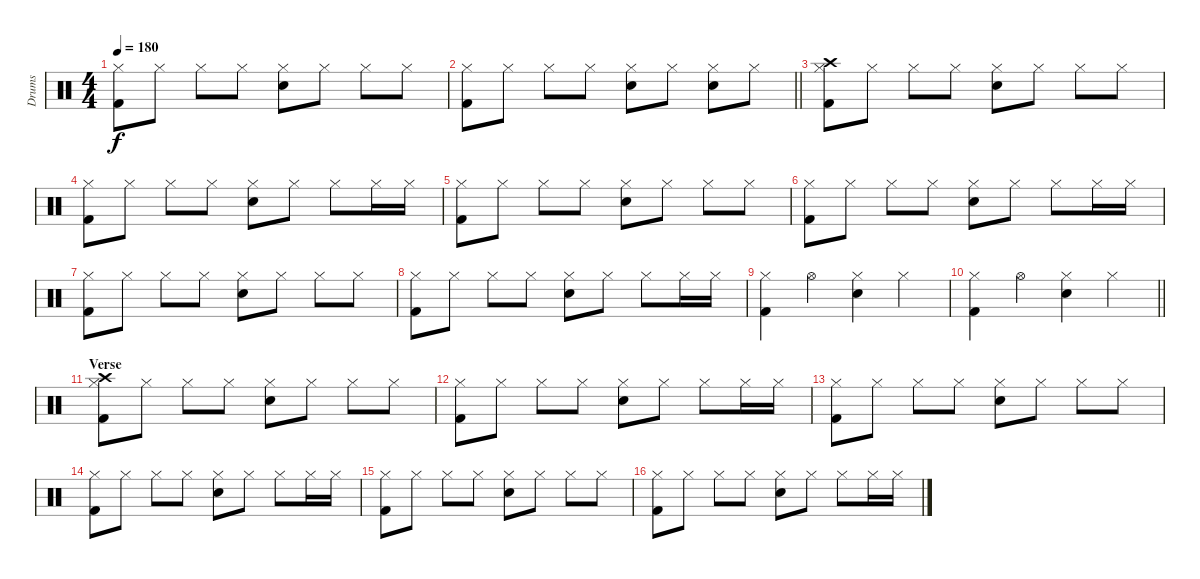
\track ("Drums" "Drums") {instrument percussion}
\staff
\articulation defaults
\ts (4 4)
\tempo 180
\clef neutral
\ks c
("Hi-Hat (closed)" "Kick (hit) 2").8{dy f} "Hi-Hat (closed)".8 "Hi-Hat (closed)".8 "Hi-Hat (closed)".8 ("Hi-Hat (closed)" "Electric Snare (hit)").8 "Hi-Hat (closed)".8 "Hi-Hat (closed)".8 "Hi-Hat (closed)".8 |
\barLineRight lightlight
("Hi-Hat (closed)" "Kick (hit) 2").8 "Hi-Hat (closed)".8 "Hi-Hat (closed)".8 "Hi-Hat (closed)".8 ("Hi-Hat (closed)" "Electric Snare (hit)").8 "Hi-Hat (closed)".8 ("Hi-Hat (closed)" "Electric Snare (hit)").8 "Hi-Hat (closed)".8 |
("Crash high (hit)" "Hi-Hat (closed)" "Kick (hit) 2").8 "Hi-Hat (closed)".8 "Hi-Hat (closed)".8 "Hi-Hat (closed)".8 ("Hi-Hat (closed)" "Electric Snare (hit)").8 "Hi-Hat (closed)".8 "Hi-Hat (closed)".8 "Hi-Hat (closed)".8 |
("Hi-Hat (closed)" "Kick (hit) 2").8 "Hi-Hat (closed)".8 "Hi-Hat (closed)".8 "Hi-Hat (closed)".8 ("Hi-Hat (closed)" "Electric Snare (hit)").8 "Hi-Hat (closed)".8 "Hi-Hat (closed)".8 "Hi-Hat (closed)".16 "Hi-Hat (closed)".16 |
("Hi-Hat (closed)" "Kick (hit) 2").8 "Hi-Hat (closed)".8 "Hi-Hat (closed)".8 "Hi-Hat (closed)".8 ("Hi-Hat (closed)" "Electric Snare (hit)").8 "Hi-Hat (closed)".8 "Hi-Hat (closed)".8 "Hi-Hat (closed)".8 |
("Hi-Hat (closed)" "Kick (hit) 2").8 "Hi-Hat (closed)".8 "Hi-Hat (closed)".8 "Hi-Hat (closed)".8 ("Hi-Hat (closed)" "Electric Snare (hit)").8 "Hi-Hat (closed)".8 "Hi-Hat (closed)".8 "Hi-Hat (closed)".16 "Hi-Hat (closed)".16 |
("Hi-Hat (closed)" "Kick (hit) 2").8 "Hi-Hat (closed)".8 "Hi-Hat (closed)".8 "Hi-Hat (closed)".8 ("Hi-Hat (closed)" "Electric Snare (hit)").8 "Hi-Hat (closed)".8 "Hi-Hat (closed)".8 "Hi-Hat (closed)".8 |
("Hi-Hat (closed)" "Kick (hit) 2").8 "Hi-Hat (closed)".8 "Hi-Hat (closed)".8 "Hi-Hat (closed)".8 ("Hi-Hat (closed)" "Electric Snare (hit)").8 "Hi-Hat (closed)".8 "Hi-Hat (closed)".8 "Hi-Hat (closed)".16 "Hi-Hat (closed)".16 |
("Hi-Hat (closed)" "Kick (hit) 2").4 "Hi-Hat (open)".4 ("Hi-Hat (closed)" "Electric Snare (hit)").4 "Hi-Hat (closed)".4 |
\barLineRight lightlight
("Hi-Hat (closed)" "Kick (hit) 2").4 "Hi-Hat (open)".4 ("Hi-Hat (closed)" "Electric Snare (hit)").4 "Hi-Hat (closed)".4 |
\section ("" "Verse")
("Crash high (hit)" "Hi-Hat (closed)" "Kick (hit) 2").8 "Hi-Hat (closed)".8 "Hi-Hat (closed)".8 "Hi-Hat (closed)".8 ("Hi-Hat (closed)" "Electric Snare (hit)").8 "Hi-Hat (closed)".8 "Hi-Hat (closed)".8 "Hi-Hat (closed)".8 |
("Hi-Hat (closed)" "Kick (hit) 2").8 "Hi-Hat (closed)".8 "Hi-Hat (closed)".8 "Hi-Hat (closed)".8 ("Hi-Hat (closed)" "Electric Snare (hit)").8 "Hi-Hat (closed)".8 "Hi-Hat (closed)".8 "Hi-Hat (closed)".16 "Hi-Hat (closed)".16 |
("Hi-Hat (closed)" "Kick (hit) 2").8 "Hi-Hat (closed)".8 "Hi-Hat (closed)".8 "Hi-Hat (closed)".8 ("Hi-Hat (closed)" "Electric Snare (hit)").8 "Hi-Hat (closed)".8 "Hi-Hat (closed)".8 "Hi-Hat (closed)".8 |
("Hi-Hat (closed)" "Kick (hit) 2").8 "Hi-Hat (closed)".8 "Hi-Hat (closed)".8 "Hi-Hat (closed)".8 ("Hi-Hat (closed)" "Electric Snare (hit)").8 "Hi-Hat (closed)".8 "Hi-Hat (closed)".8 "Hi-Hat (closed)".16 "Hi-Hat (closed)".16 |
("Hi-Hat (closed)" "Kick (hit) 2").8 "Hi-Hat (closed)".8 "Hi-Hat (closed)".8 "Hi-Hat (closed)".8 ("Hi-Hat (closed)" "Electric Snare (hit)").8 "Hi-Hat (closed)".8 "Hi-Hat (closed)".8 "Hi-Hat (closed)".8 |
("Hi-Hat (closed)" "Kick (hit) 2").8 "Hi-Hat (closed)".8 "Hi-Hat (closed)".8 "Hi-Hat (closed)".8 ("Hi-Hat (closed)" "Electric Snare (hit)").8 "Hi-Hat (closed)".8 "Hi-Hat (closed)".8 "Hi-Hat (closed)".16 "Hi-Hat (closed)".16
